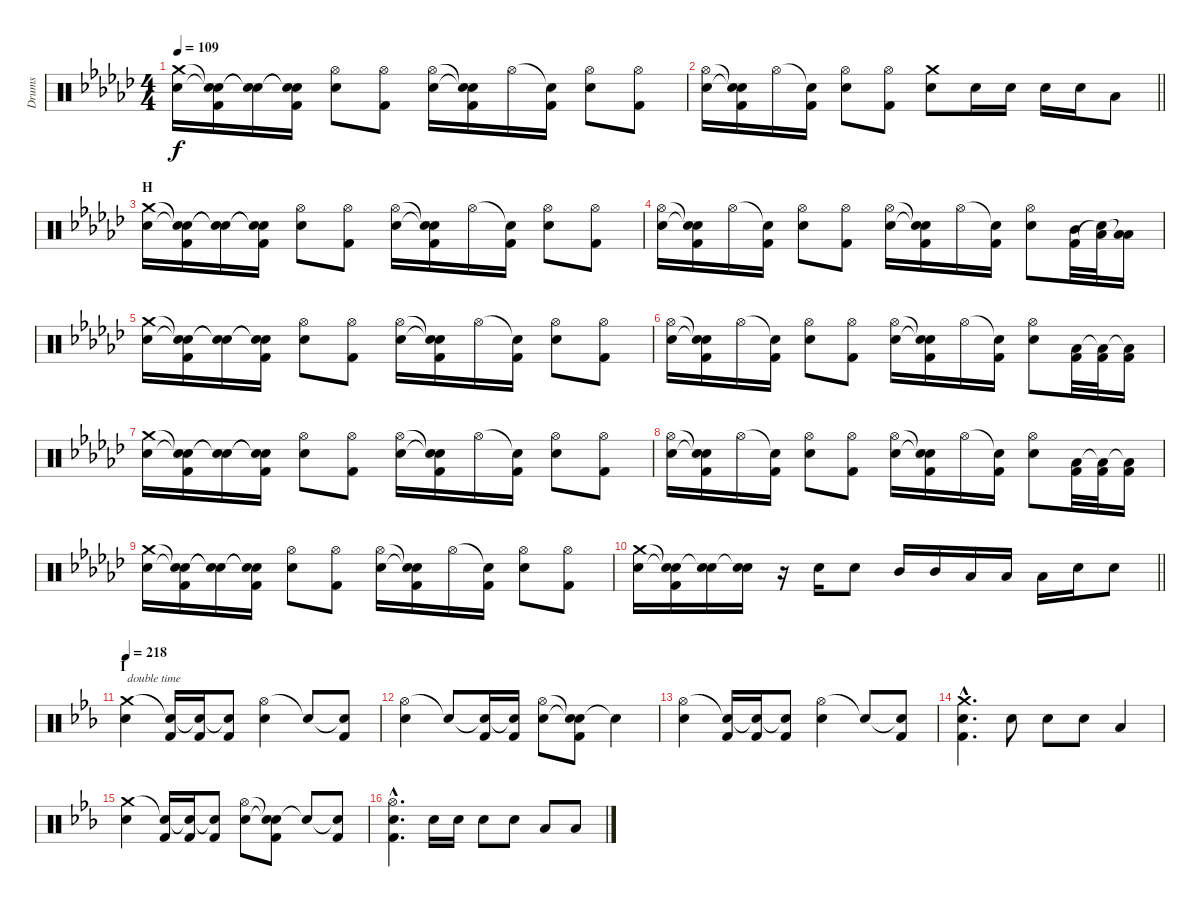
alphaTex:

\track ("Drums" "Drums") {instrument percussion}
\staff {score}
\articulation defaults
\ts (4 4)
\tempo 109
\clef neutral
\ks ebminor
("Crash medium (hit)" "Electric Snare (hit)").16{dy f} ("Snare (hit)"{t} "Snare (hit)"{t} "Kick (hit) 2").16 ("Snare (hit)"{t} "Snare (hit)"{t}).16 ("Snare (hit)"{t} "Snare (hit)"{t} "Kick (hit) 2").16 ("Hi-Hat (open)" "Electric Snare (hit)").8 ("Hi-Hat (open)" "Kick (hit) 2").8 ("Hi-Hat (open)" "Electric Snare (hit)").16 ("Snare (hit)"{t} "Snare (hit)"{t} "Kick (hit) 2").16 "Hi-Hat (open)".16 ("Snare (hit)"{t} "Kick (hit) 2").16 ("Hi-Hat (open)" "Electric Snare (hit)").8 ("Hi-Hat (open)" "Kick (hit) 2").8 |
\barLineRight lightlight
("Hi-Hat (open)" "Electric Snare (hit)").16 ("Snare (hit)"{t} "Snare (hit)"{t} "Kick (hit) 2").16 "Hi-Hat (open)".16 ("Snare (hit)"{t} "Kick (hit) 2").16 ("Hi-Hat (open)" "Electric Snare (hit)").8 ("Hi-Hat (open)" "Kick (hit) 2").8 ("Crash medium (hit)" "Electric Snare (hit)").8 "Electric Snare (hit)".16 "Electric Snare (hit)".16 "Electric Snare (hit)".16 "Electric Snare (hit)".16 "Low Floor Tom (hit)".8 |
\section ("" "H")
("Crash medium (hit)" "Electric Snare (hit)").16 ("Snare (hit)"{t} "Snare (hit)"{t} "Kick (hit) 2").16 ("Snare (hit)"{t} "Snare (hit)"{t}).16 ("Snare (hit)"{t} "Snare (hit)"{t} "Kick (hit) 2").16 ("Hi-Hat (open)" "Electric Snare (hit)").8 ("Hi-Hat (open)" "Kick (hit) 2").8 ("Hi-Hat (open)" "Electric Snare (hit)").16 ("Snare (hit)"{t} "Snare (hit)"{t} "Kick (hit) 2").16 "Hi-Hat (open)".16 ("Snare (hit)"{t} "Kick (hit) 2").16 ("Hi-Hat (open)" "Electric Snare (hit)").8 ("Hi-Hat (open)" "Kick (hit) 2").8 |
("Hi-Hat (open)" "Electric Snare (hit)").16 ("Snare (hit)"{t} "Snare (hit)"{t} "Kick (hit) 2").16 "Hi-Hat (open)".16 ("Snare (hit)"{t} "Kick (hit) 2").16 ("Hi-Hat (open)" "Electric Snare (hit)").8 ("Hi-Hat (open)" "Kick (hit) 2").8 ("Hi-Hat (open)" "Electric Snare (hit)").16 ("Snare (hit)"{t} "Snare (hit)"{t} "Kick (hit) 2").16 "Hi-Hat (open)".16 ("Snare (hit)"{t} "Kick (hit) 2").16 ("Hi-Hat (open)" "Electric Snare (hit)").8 ("Mid Tom (hit)" "Kick (hit) 2").32 ("Low Tom (hit)" "Snare (hit)"{t}).32 ("Low Floor Tom (hit)" "Low Floor Tom (hit)"{t}).16 |
("Crash medium (hit)" "Electric Snare (hit)").16 ("Snare (hit)"{t} "Snare (hit)"{t} "Kick (hit) 2").16 ("Snare (hit)"{t} "Snare (hit)"{t}).16 ("Snare (hit)"{t} "Snare (hit)"{t} "Kick (hit) 2").16 ("Hi-Hat (open)" "Electric Snare (hit)").8 ("Hi-Hat (open)" "Kick (hit) 2").8 ("Hi-Hat (open)" "Electric Snare (hit)").16 ("Snare (hit)"{t} "Snare (hit)"{t} "Kick (hit) 2").16 "Hi-Hat (open)".16 ("Snare (hit)"{t} "Kick (hit) 2").16 ("Hi-Hat (open)" "Electric Snare (hit)").8 ("Hi-Hat (open)" "Kick (hit) 2").8 |
("Hi-Hat (open)" "Electric Snare (hit)").16 ("Snare (hit)"{t} "Snare (hit)"{t} "Kick (hit) 2").16 "Hi-Hat (open)".16 ("Snare (hit)"{t} "Kick (hit) 2").16 ("Hi-Hat (open)" "Electric Snare (hit)").8 ("Hi-Hat (open)" "Kick (hit) 2").8 ("Hi-Hat (open)" "Electric Snare (hit)").16 ("Snare (hit)"{t} "Snare (hit)"{t} "Kick (hit) 2").16 "Hi-Hat (open)".16 ("Snare (hit)"{t} "Kick (hit) 2").16 ("Hi-Hat (open)" "Electric Snare (hit)").8 ("Low Floor Tom (hit)" "Kick (hit) 2").32 ("Low Floor Tom (hit)"{t} "Kick (hit) 2").32 ("Low Floor Tom (hit)"{t} "Kick (hit) 2").16 |
("Crash medium (hit)" "Electric Snare (hit)").16 ("Snare (hit)"{t} "Snare (hit)"{t} "Kick (hit) 2").16 ("Snare (hit)"{t} "Snare (hit)"{t}).16 ("Snare (hit)"{t} "Snare (hit)"{t} "Kick (hit) 2").16 ("Hi-Hat (open)" "Electric Snare (hit)").8 ("Hi-Hat (open)" "Kick (hit) 2").8 ("Hi-Hat (open)" "Electric Snare (hit)").16 ("Snare (hit)"{t} "Snare (hit)"{t} "Kick (hit) 2").16 "Hi-Hat (open)".16 ("Snare (hit)"{t} "Kick (hit) 2").16 ("Hi-Hat (open)" "Electric Snare (hit)").8 ("Hi-Hat (open)" "Kick (hit) 2").8 |
("Hi-Hat (open)" "Electric Snare (hit)").16 ("Snare (hit)"{t} "Snare (hit)"{t} "Kick (hit) 2").16 "Hi-Hat (open)".16 ("Snare (hit)"{t} "Kick (hit) 2").16 ("Hi-Hat (open)" "Electric Snare (hit)").8 ("Hi-Hat (open)" "Kick (hit) 2").8 ("Hi-Hat (open)" "Electric Snare (hit)").16 ("Snare (hit)"{t} "Snare (hit)"{t} "Kick (hit) 2").16 "Hi-Hat (open)".16 ("Snare (hit)"{t} "Kick (hit) 2").16 ("Hi-Hat (open)" "Electric Snare (hit)").8 ("Low Floor Tom (hit)" "Kick (hit) 2").32 ("Low Floor Tom (hit)"{t} "Kick (hit) 2").32 ("Low Floor Tom (hit)"{t} "Kick (hit) 2").16 |
("Crash medium (hit)" "Electric Snare (hit)").16 ("Snare (hit)"{t} "Snare (hit)"{t} "Kick (hit) 2").16 ("Snare (hit)"{t} "Snare (hit)"{t}).16 ("Snare (hit)"{t} "Snare (hit)"{t} "Kick (hit) 2").16 ("Hi-Hat (open)" "Electric Snare (hit)").8 ("Hi-Hat (open)" "Kick (hit) 2").8 ("Hi-Hat (open)" "Electric Snare (hit)").16 ("Snare (hit)"{t} "Snare (hit)"{t} "Kick (hit) 2").16 "Hi-Hat (open)".16 ("Snare (hit)"{t} "Kick (hit) 2").16 ("Hi-Hat (open)" "Electric Snare (hit)").8 ("Hi-Hat (open)" "Kick (hit) 2").8 |
\barLineRight lightlight
("Crash medium (hit)" "Electric Snare (hit)").16 ("Snare (hit)"{t} "Snare (hit)"{t} "Kick (hit) 2").16 ("Electric Snare (hit)" "Snare (hit)"{t}).16 ("Electric Snare (hit)" "Snare (hit)"{t}).16 r.16 "Electric Snare (hit)".16 "Electric Snare (hit)".8 "Mid Tom (hit)".16 "Mid Tom (hit)".16 "Low Tom (hit)".16 "Low Tom (hit)".16 "Low Floor Tom (hit)".16 "Electric Snare (hit)".16 "Electric Snare (hit)".8 |
\section ("" "I")
\tempo 218
\ks eb
("Crash medium (hit)" "Electric Snare (hit)").4{txt "double time"} ("Snare (hit)"{t} "Kick (hit) 2").16 ("Snare (hit)"{t} "Kick (hit) 2").16 ("Snare (hit)"{t} "Kick (hit) 2").8 ("Hi-Hat (open)" "Electric Snare (hit)").4 "Snare (hit)"{t}.8 ("Snare (hit)"{t} "Kick (hit) 2").8 |
("Hi-Hat (open)" "Electric Snare (hit)").4 "Snare (hit)"{t}.8 ("Snare (hit)"{t} "Kick (hit) 2").16 ("Snare (hit)"{t} "Kick (hit) 2").16 ("Hi-Hat (open)" "Electric Snare (hit)").8 ("Snare (hit)"{t} "Snare (hit)"{t} "Kick (hit) 2").8 "Snare (hit)"{t}.4 |
("Hi-Hat (open)" "Electric Snare (hit)").4 ("Snare (hit)"{t} "Kick (hit) 2").16 ("Snare (hit)"{t} "Kick (hit) 2").16 ("Snare (hit)"{t} "Kick (hit) 2").8 ("Hi-Hat (open)" "Electric Snare (hit)").4 "Snare (hit)"{t}.8 ("Snare (hit)"{t} "Kick (hit) 2").8 |
("Crash medium (hit)"{hac} "Electric Snare (hit)"{hac} "Kick (hit) 2"{hac}).4{d} "Electric Snare (hit)".8 "Electric Snare (hit)".8 "Electric Snare (hit)".8 "Low Floor Tom (hit)".4 |
("Crash medium (hit)" "Electric Snare (hit)").4 ("Snare (hit)"{t} "Kick (hit) 2").16 ("Snare (hit)"{t} "Kick (hit) 2").16 ("Snare (hit)"{t} "Kick (hit) 2").8 ("Hi-Hat (open)" "Electric Snare (hit)").8 ("Snare (hit)"{t} "Snare (hit)"{t} "Kick (hit) 2").8 "Snare (hit)"{t}.8 ("Snare (hit)"{t} "Kick (hit) 2").8 |
("Hi-Hat (open)"{hac} "Electric Snare (hit)"{hac} "Kick (hit) 2"{hac}).4{d} "Electric Snare (hit)".16 "Electric Snare (hit)".16 "Electric Snare (hit)".8 "Electric Snare (hit)".8 "Low Tom (hit)".8 "Low Floor Tom (hit)".8
